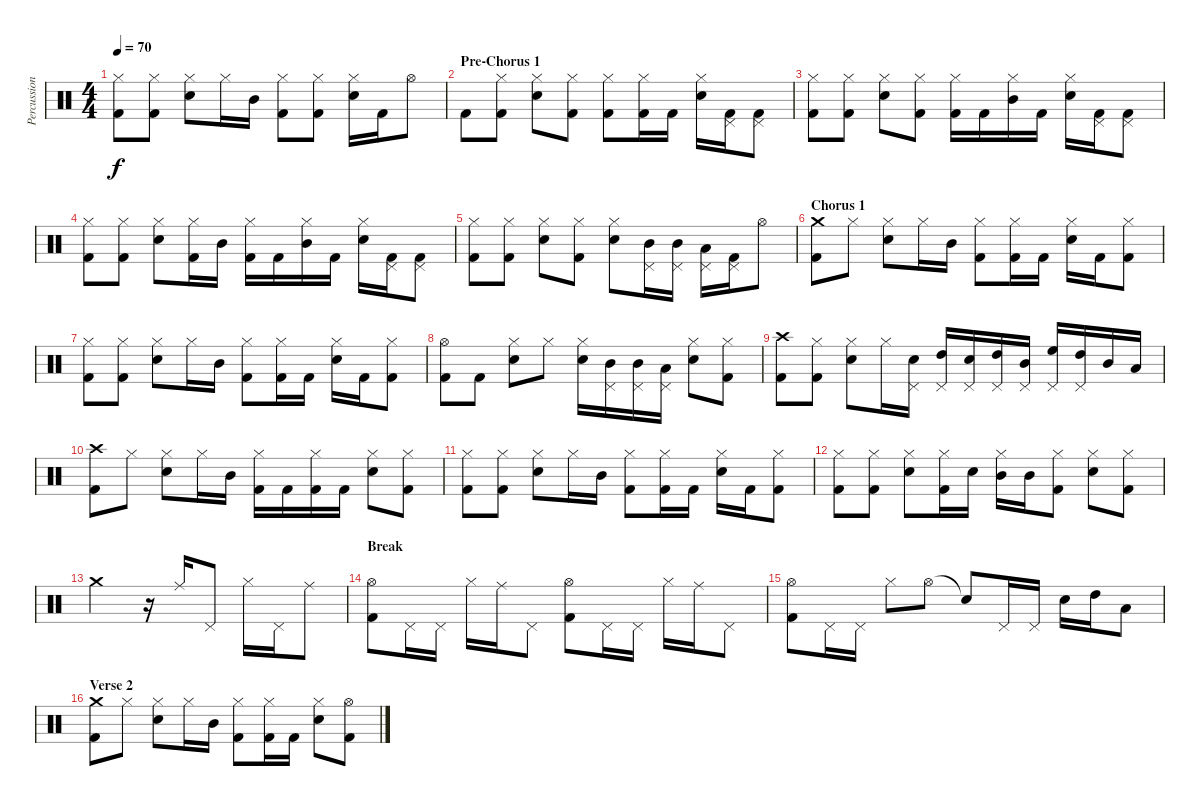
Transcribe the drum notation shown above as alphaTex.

\track ("Percussion" "Percussion") {instrument percussion}
\staff {score}
\articulation defaults
\ts (4 4)
\tempo 70
\clef neutral
\ks c
("Hi-Hat (closed)" "Kick (hit) 2").8{dy f} ("Hi-Hat (closed)" "Kick (hit) 2").8 ("Hi-Hat (closed)" "Electric Snare (hit)").8 "Hi-Hat (closed)".16 "Mid Tom (hit)".16 ("Hi-Hat (closed)" "Kick (hit) 2").8 ("Hi-Hat (closed)" "Kick (hit) 2").8 ("Hi-Hat (closed)" "Electric Snare (hit)").16 "Kick (hit) 2".16 "Hi-Hat (open)".8 |
\section ("" "Pre-Chorus 1")
"Kick (hit) 2".8 ("Hi-Hat (closed)" "Kick (hit) 2").8 ("Hi-Hat (closed)" "Electric Snare (hit)").8 ("Hi-Hat (closed)" "Kick (hit) 2").8 ("Hi-Hat (closed)" "Kick (hit) 2").8 ("Hi-Hat (closed)" "Kick (hit) 2").16 "Kick (hit) 2".16 ("Hi-Hat (closed)" "Electric Snare (hit)").16 ("Pedal Hi-Hat (hit)" "Kick (hit) 2").16 ("Pedal Hi-Hat (hit)" "Kick (hit) 2").8 |
("Hi-Hat (closed)" "Kick (hit) 2").8 ("Hi-Hat (closed)" "Kick (hit) 2").8 ("Hi-Hat (closed)" "Electric Snare (hit)").8 ("Hi-Hat (closed)" "Kick (hit) 2").8 ("Hi-Hat (closed)" "Kick (hit) 2").16 "Kick (hit) 2".16 ("Hi-Hat (closed)" "Mid Tom (hit)").16 "Kick (hit) 2".16 ("Hi-Hat (closed)" "Electric Snare (hit)").16 ("Pedal Hi-Hat (hit)" "Kick (hit) 2").16 ("Pedal Hi-Hat (hit)" "Kick (hit) 2").8 |
("Hi-Hat (closed)" "Kick (hit) 2").8 ("Hi-Hat (closed)" "Kick (hit) 2").8 ("Hi-Hat (closed)" "Electric Snare (hit)").8 ("Hi-Hat (closed)" "Kick (hit) 2").16 "Mid Tom (hit)".16 ("Hi-Hat (closed)" "Kick (hit) 2").16 "Kick (hit) 2".16 ("Hi-Hat (closed)" "Mid Tom (hit)").16 "Kick (hit) 2".16 ("Hi-Hat (closed)" "Electric Snare (hit)").16 ("Pedal Hi-Hat (hit)" "Kick (hit) 2").16 ("Pedal Hi-Hat (hit)" "Kick (hit) 2").8 |
("Hi-Hat (closed)" "Kick (hit) 2").8 ("Hi-Hat (closed)" "Kick (hit) 2").8 ("Hi-Hat (closed)" "Electric Snare (hit)").8 ("Hi-Hat (closed)" "Kick (hit) 2").8 ("Hi-Hat (closed)" "Electric Snare (hit)").8 ("Pedal Hi-Hat (hit)" "Mid Tom (hit)").16 ("Pedal Hi-Hat (hit)" "Mid Tom (hit)").16 ("Pedal Hi-Hat (hit)" "Low Tom (hit)").16 ("Pedal Hi-Hat (hit)" "Kick (hit) 2").16 "Hi-Hat (open)".8 |
\section ("" "Chorus 1")
("Crash medium (hit)" "Kick (hit) 2").8 "Hi-Hat (closed)".8 ("Hi-Hat (closed)" "Electric Snare (hit)").8 "Hi-Hat (closed)".16 "Mid Tom (hit)".16 ("Hi-Hat (closed)" "Kick (hit) 2").8 ("Hi-Hat (closed)" "Kick (hit) 2").16 "Kick (hit) 2".16 ("Hi-Hat (closed)" "Electric Snare (hit)").16 "Kick (hit) 2".16 ("Hi-Hat (closed)" "Kick (hit) 2").8 |
("Hi-Hat (closed)" "Kick (hit) 2").8 ("Hi-Hat (closed)" "Kick (hit) 2").8 ("Hi-Hat (closed)" "Electric Snare (hit)").8 "Hi-Hat (closed)".16 "Mid Tom (hit)".16 ("Hi-Hat (closed)" "Kick (hit) 2").8 ("Hi-Hat (closed)" "Kick (hit) 2").16 "Kick (hit) 2".16 ("Hi-Hat (closed)" "Electric Snare (hit)").16 "Kick (hit) 2".16 ("Hi-Hat (closed)" "Kick (hit) 2").8 |
("Hi-Hat (open)" "Kick (hit) 2").8 "Kick (hit) 2".8 ("Hi-Hat (closed)" "Electric Snare (hit)").8 "Hi-Hat (closed)".8 ("Hi-Hat (closed)" "Electric Snare (hit)").16 ("Pedal Hi-Hat (hit)" "Mid Tom (hit)").16 ("Pedal Hi-Hat (hit)" "Mid Tom (hit)").16 ("Pedal Hi-Hat (hit)" "Low Tom (hit)").16 ("Hi-Hat (closed)" "Electric Snare (hit)").8 ("Hi-Hat (closed)" "Kick (hit) 2").8 |
("Crash high (hit)" "Kick (hit) 2").8 ("Hi-Hat (closed)" "Kick (hit) 2").8 ("Hi-Hat (closed)" "Electric Snare (hit)").8 "Hi-Hat (closed)".16 ("Pedal Hi-Hat (hit)" "Electric Snare (hit)").16 ("Pedal Hi-Hat (hit)" "High Tom (hit)").16 ("Pedal Hi-Hat (hit)" "Electric Snare (hit)").16 ("Pedal Hi-Hat (hit)" "High Tom (hit)").16 ("Pedal Hi-Hat (hit)" "Mid Tom (hit)").16 ("Pedal Hi-Hat (hit)" "High Floor Tom (hit)").16 ("Pedal Hi-Hat (hit)" "High Tom (hit)").16 "Mid Tom (hit)".16 "Low Tom (hit)".16 |
("Crash high (hit)" "Kick (hit) 2").8 "Hi-Hat (closed)".8 ("Hi-Hat (closed)" "Electric Snare (hit)").8 "Hi-Hat (closed)".16 "Mid Tom (hit)".16 ("Hi-Hat (closed)" "Kick (hit) 2").16 "Kick (hit) 2".16 ("Hi-Hat (closed)" "Kick (hit) 2").16 "Kick (hit) 2".16 ("Hi-Hat (closed)" "Electric Snare (hit)").8 ("Hi-Hat (closed)" "Kick (hit) 2").8 |
("Hi-Hat (closed)" "Kick (hit) 2").8 ("Hi-Hat (closed)" "Kick (hit) 2").8 ("Hi-Hat (closed)" "Electric Snare (hit)").8 "Hi-Hat (closed)".16 "Mid Tom (hit)".16 ("Hi-Hat (closed)" "Kick (hit) 2").8 ("Hi-Hat (closed)" "Kick (hit) 2").16 "Kick (hit) 2".16 ("Hi-Hat (closed)" "Electric Snare (hit)").16 "Kick (hit) 2".16 ("Hi-Hat (closed)" "Kick (hit) 2").8 |
("Hi-Hat (closed)" "Kick (hit) 2").8 ("Hi-Hat (closed)" "Kick (hit) 2").8 ("Hi-Hat (closed)" "Electric Snare (hit)").8 ("Hi-Hat (closed)" "Kick (hit) 2").16 "Electric Snare (hit)".16 ("Hi-Hat (closed)" "Mid Tom (hit)").16 "Mid Tom (hit)".16 ("Hi-Hat (closed)" "Kick (hit) 2").8 ("Hi-Hat (closed)" "Electric Snare (hit)").8 ("Hi-Hat (closed)" "Kick (hit) 2").8 |
"Crash medium (hit)".2 r.16 "Ride (middle)".16 "Pedal Hi-Hat (hit)".8 "Hi-Hat (closed)".16 "Pedal Hi-Hat (hit)".16 "Ride (middle)".8 |
\section ("" "Break")
("Hi-Hat (open)" "Kick (hit) 2").8 "Pedal Hi-Hat (hit)".16 "Pedal Hi-Hat (hit)".16 "Hi-Hat (closed)".16 "Ride (middle)".16 "Pedal Hi-Hat (hit)".8 ("Hi-Hat (open)" "Kick (hit) 2").8 "Pedal Hi-Hat (hit)".16 "Pedal Hi-Hat (hit)".16 "Hi-Hat (closed)".16 "Ride (middle)".16 "Pedal Hi-Hat (hit)".8 |
("Hi-Hat (open)" "Kick (hit) 2").8 "Pedal Hi-Hat (hit)".16 "Pedal Hi-Hat (hit)".16 "Hi-Hat (closed)".8 "Hi-Hat (open)".8 "Snare (hit)"{t}.8 "Pedal Hi-Hat (hit)".16 "Pedal Hi-Hat (hit)".16 "Electric Snare (hit)".16 "High Tom (hit)".16 "Low Tom (hit)".8 |
\section ("" "Verse 2")
("Crash medium (hit)" "Kick (hit) 2").8 "Hi-Hat (closed)".8 ("Hi-Hat (closed)" "Electric Snare (hit)").8 "Hi-Hat (closed)".16 "Mid Tom (hit)".16 ("Hi-Hat (closed)" "Kick (hit) 2").8 ("Hi-Hat (closed)" "Kick (hit) 2").16 "Kick (hit) 2".16 ("Hi-Hat (closed)" "Electric Snare (hit)").8 ("Hi-Hat (open)" "Kick (hit) 2").8
